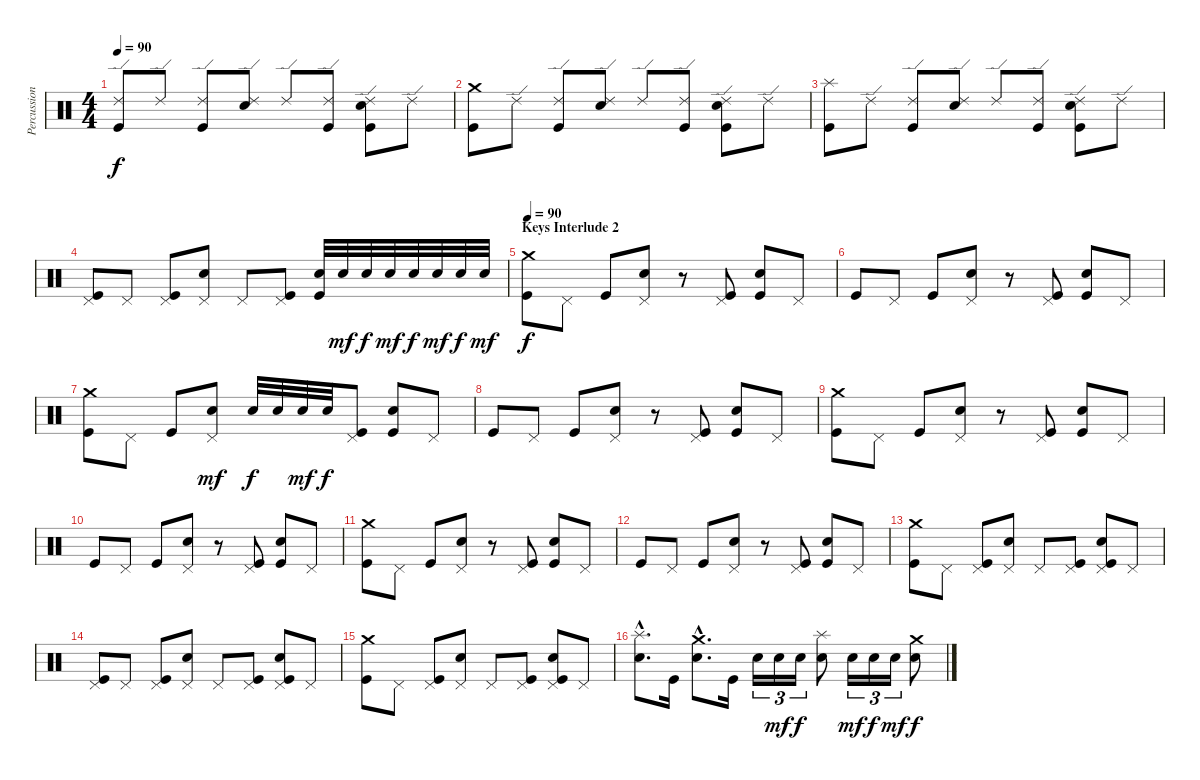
\track ("Percussioni" "Percussion") {instrument percussion}
\staff {score}
\articulation defaults
\ts (4 4)
\tempo 90
\clef neutral
\ks c
("Ride (edge) 2" "Kick (hit)").8{dy f} "Ride (edge) 2".8 ("Ride (edge) 2" "Kick (hit)").8 ("Ride (edge) 2" "Snare (hit) 2").8 "Ride (edge) 2".8 ("Ride (edge) 2" "Kick (hit)").8 ("Ride (edge) 2" "Snare (hit) 2" "Kick (hit)").8 "Ride (edge) 2".8 |
("Crash medium (hit)" "Kick (hit)").8 "Ride (edge) 2".8 ("Ride (edge) 2" "Kick (hit)").8 ("Ride (edge) 2" "Snare (hit) 2").8 "Ride (edge) 2".8 ("Ride (edge) 2" "Kick (hit)").8 ("Ride (edge) 2" "Snare (hit) 2" "Kick (hit)").8 "Ride (edge) 2".8 |
("Splash (hit)" "Kick (hit)").8 "Ride (edge) 2".8 ("Ride (edge) 2" "Kick (hit)").8 ("Ride (edge) 2" "Snare (hit) 2").8 "Ride (edge) 2".8 ("Ride (edge) 2" "Kick (hit)").8 ("Ride (edge) 2" "Snare (hit) 2" "Kick (hit)").8 "Ride (edge) 2".8 |
("Pedal Hi-Hat (hit)" "Kick (hit)").8 "Pedal Hi-Hat (hit)".8 ("Pedal Hi-Hat (hit)" "Kick (hit)").8 ("Pedal Hi-Hat (hit)" "Snare (hit) 2").8 "Pedal Hi-Hat (hit)".8 ("Pedal Hi-Hat (hit)" "Kick (hit)").8 ("Snare (hit) 2" "Kick (hit)").32 "Snare (hit) 2".32{dy mf} "Snare (hit) 2".32{dy f} "Snare (hit) 2".32{dy mf} "Snare (hit) 2".32{dy f} "Snare (hit) 2".32{dy mf} "Snare (hit) 2".32{dy f} "Snare (hit) 2".32{dy mf} |
\section ("" "Keys Interlude 2")
\tempo 90
("Crash medium (hit)" "Kick (hit)").8{dy f} "Pedal Hi-Hat (hit)".8 "Kick (hit)".8 ("Pedal Hi-Hat (hit)" "Snare (hit) 2").8 r.8 ("Pedal Hi-Hat (hit)" "Kick (hit)").8 ("Snare (hit) 2" "Kick (hit)").8 "Pedal Hi-Hat (hit)".8 |
"Kick (hit)".8 "Pedal Hi-Hat (hit)".8 "Kick (hit)".8 ("Pedal Hi-Hat (hit)" "Snare (hit) 2").8 r.8 ("Pedal Hi-Hat (hit)" "Kick (hit)").8 ("Snare (hit) 2" "Kick (hit)").8 "Pedal Hi-Hat (hit)".8 |
("Crash medium (hit)" "Kick (hit)").8 "Pedal Hi-Hat (hit)".8 "Kick (hit)".8 ("Pedal Hi-Hat (hit)" "Snare (hit) 2").8{dy mf} "Snare (hit) 2".32{dy f} "Snare (hit) 2".32 "Snare (hit) 2".32{dy mf} "Snare (hit) 2".32{dy f} ("Pedal Hi-Hat (hit)" "Kick (hit)").8 ("Snare (hit) 2" "Kick (hit)").8 "Pedal Hi-Hat (hit)".8 |
"Kick (hit)".8 "Pedal Hi-Hat (hit)".8 "Kick (hit)".8 ("Pedal Hi-Hat (hit)" "Snare (hit) 2").8 r.8 ("Pedal Hi-Hat (hit)" "Kick (hit)").8 ("Snare (hit) 2" "Kick (hit)").8 "Pedal Hi-Hat (hit)".8 |
("Crash medium (hit)" "Kick (hit)").8 "Pedal Hi-Hat (hit)".8 "Kick (hit)".8 ("Pedal Hi-Hat (hit)" "Snare (hit) 2").8 r.8 ("Pedal Hi-Hat (hit)" "Kick (hit)").8 ("Snare (hit) 2" "Kick (hit)").8 "Pedal Hi-Hat (hit)".8 |
"Kick (hit)".8 "Pedal Hi-Hat (hit)".8 "Kick (hit)".8 ("Pedal Hi-Hat (hit)" "Snare (hit) 2").8 r.8 ("Pedal Hi-Hat (hit)" "Kick (hit)").8 ("Snare (hit) 2" "Kick (hit)").8 "Pedal Hi-Hat (hit)".8 |
("Crash medium (hit)" "Kick (hit)").8 "Pedal Hi-Hat (hit)".8 "Kick (hit)".8 ("Pedal Hi-Hat (hit)" "Snare (hit) 2").8 r.8 ("Pedal Hi-Hat (hit)" "Kick (hit)").8 ("Snare (hit) 2" "Kick (hit)").8 "Pedal Hi-Hat (hit)".8 |
"Kick (hit)".8 "Pedal Hi-Hat (hit)".8 "Kick (hit)".8 ("Pedal Hi-Hat (hit)" "Snare (hit) 2").8 r.8 ("Pedal Hi-Hat (hit)" "Kick (hit)").8 ("Snare (hit) 2" "Kick (hit)").8 "Pedal Hi-Hat (hit)".8 |
("Crash medium (hit)" "Kick (hit)").8 "Pedal Hi-Hat (hit)".8 ("Pedal Hi-Hat (hit)" "Kick (hit)").8 ("Pedal Hi-Hat (hit)" "Snare (hit) 2").8 "Pedal Hi-Hat (hit)".8 ("Pedal Hi-Hat (hit)" "Kick (hit)").8 ("Pedal Hi-Hat (hit)" "Snare (hit) 2" "Kick (hit)").8 "Pedal Hi-Hat (hit)".8 |
("Pedal Hi-Hat (hit)" "Kick (hit)").8 "Pedal Hi-Hat (hit)".8 ("Pedal Hi-Hat (hit)" "Kick (hit)").8 ("Pedal Hi-Hat (hit)" "Snare (hit) 2").8 "Pedal Hi-Hat (hit)".8 ("Pedal Hi-Hat (hit)" "Kick (hit)").8 ("Pedal Hi-Hat (hit)" "Snare (hit) 2" "Kick (hit)").8 "Pedal Hi-Hat (hit)".8 |
("Crash medium (hit)" "Kick (hit)").8 "Pedal Hi-Hat (hit)".8 ("Pedal Hi-Hat (hit)" "Kick (hit)").8 ("Pedal Hi-Hat (hit)" "Snare (hit) 2").8 "Pedal Hi-Hat (hit)".8 ("Pedal Hi-Hat (hit)" "Kick (hit)").8 ("Pedal Hi-Hat (hit)" "Snare (hit) 2" "Kick (hit)").8 "Pedal Hi-Hat (hit)".8 |
("Splash (hit)"{hac} "Snare (hit) 2"{hac}).8{d} "Kick (hit)".16 ("Crash medium (hit)"{hac} "Snare (hit) 2"{hac}).8{d} "Kick (hit)".16 "Snare (hit) 2".16{tu (3 2)} "Snare (hit) 2".16{tu (3 2) dy mf} "Snare (hit) 2".16{tu (3 2) dy f} ("Splash (hit)" "Snare (hit) 2").8 "Snare (hit) 2".16{tu (3 2) dy mf} "Snare (hit) 2".16{tu (3 2) dy f} "Snare (hit) 2".16{tu (3 2) dy mf} ("Crash medium (hit)" "Snare (hit) 2").8{dy f}
